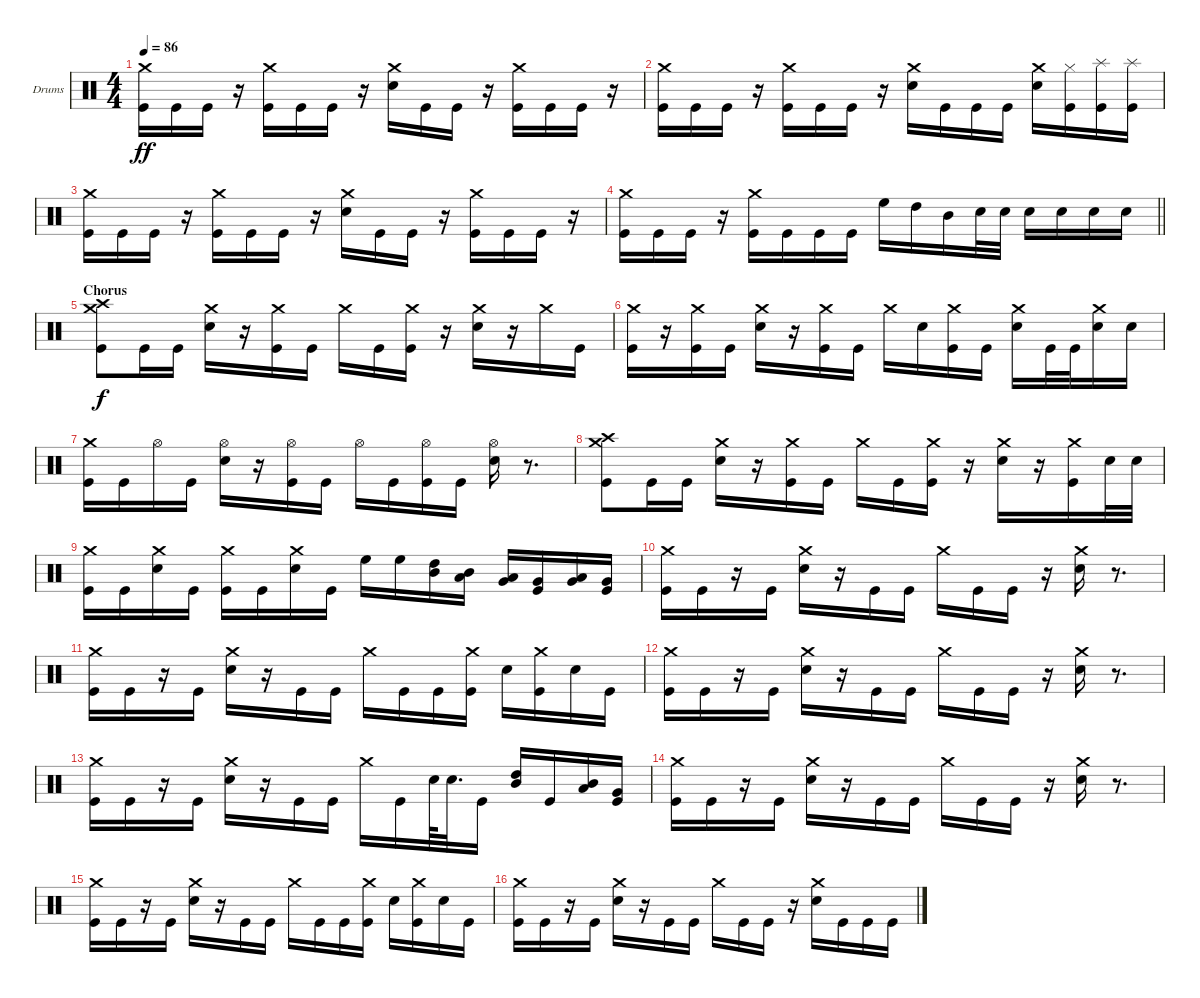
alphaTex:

\bracketExtendMode groupsimilarinstruments
\firstSystemTrackNameOrientation horizontal
\otherSystemsTrackNameOrientation horizontal
\track ("Drumkit" "Drums") {instrument percussion}
\staff {score}
\articulation defaults
\ts (4 4)
\tempo 86
\clef neutral
\ks c
("Kick (hit)" "Crash medium (hit)").16{dy ff} "Kick (hit)".16 "Kick (hit)".16 r.16 ("Kick (hit)" "Crash medium (hit)").16 "Kick (hit)".16 "Kick (hit)".16 r.16 ("Snare (hit) 2" "Crash medium (hit)").16 "Kick (hit)".16 "Kick (hit)".16 r.16 ("Crash medium (hit)" "Kick (hit)").16 "Kick (hit)".16 "Kick (hit)".16 r.16 |
("Kick (hit)" "Crash medium (hit)").16 "Kick (hit)".16 "Kick (hit)".16 r.16 ("Kick (hit)" "Crash medium (hit)").16 "Kick (hit)".16 "Kick (hit)".16 r.16 ("Snare (hit) 2" "Crash medium (hit)").16 "Kick (hit)".16 "Kick (hit)".16 "Kick (hit)".16 ("Snare (hit) 2" "Crash medium (hit)").16 ("Kick (hit)" "Hi-Hat (closed)").16 ("Kick (hit)" "Splash (hit)").16 ("Kick (hit)" "Splash (hit)").16 |
("Kick (hit)" "Crash medium (hit)").16 "Kick (hit)".16 "Kick (hit)".16 r.16 ("Kick (hit)" "Crash medium (hit)").16 "Kick (hit)".16 "Kick (hit)".16 r.16 ("Snare (hit) 2" "Crash medium (hit)").16 "Kick (hit)".16 "Kick (hit)".16 r.16 ("Crash medium (hit)" "Kick (hit)").16 "Kick (hit)".16 "Kick (hit)".16 r.16 |
\barLineRight lightlight
("Kick (hit)" "Crash medium (hit)").16 "Kick (hit)".16 "Kick (hit)".16 r.16 ("Kick (hit)" "Crash medium (hit)").16 "Kick (hit)".16 "Kick (hit)".16 "Kick (hit)".16 "High Floor Tom (hit)".16 "High Tom (hit)".16 "Mid Tom (hit)".16 "Snare (hit) 2".32 "Snare (hit) 2".32 "Snare (hit) 2".16 "Snare (hit) 2".16 "Snare (hit) 2".16 "Snare (hit) 2".16 |
\section ("" "Chorus")
("Crash medium (hit)" "Crash high (hit)" "Kick (hit)").8{dy f} "Kick (hit)".16 "Kick (hit)".16 ("Crash medium (hit)" "Snare (hit) 2").16 r.16 ("Crash medium (hit)" "Kick (hit)").16 "Kick (hit)".16 "Crash medium (hit)".16 "Kick (hit)".16 ("Crash medium (hit)" "Kick (hit)").16 r.16 ("Crash medium (hit)" "Snare (hit) 2").16 r.16 "Crash medium (hit)".16 "Kick (hit)".16 |
("Crash medium (hit)" "Kick (hit)").16 r.16 ("Crash medium (hit)" "Kick (hit)").16 "Kick (hit)".16 ("Crash medium (hit)" "Snare (hit) 2").16 r.16 ("Crash medium (hit)" "Kick (hit)").16 "Kick (hit)".16 "Crash medium (hit)".16 "Snare (hit) 2".16 ("Crash medium (hit)" "Kick (hit)").16 "Kick (hit)".16 ("Crash medium (hit)" "Snare (hit) 2").16 "Kick (hit)".32 "Kick (hit)".32 ("Crash medium (hit)" "Snare (hit) 2").16 "Snare (hit) 2".16 |
("Crash medium (hit)" "Kick (hit)").16 "Kick (hit)".16 "Hi-Hat (open)".16 "Kick (hit)".16 ("Hi-Hat (open)" "Snare (hit) 2").16 r.16 ("Hi-Hat (open)" "Kick (hit)").16 "Kick (hit)".16 "Hi-Hat (open)".16 "Kick (hit)".16 ("Hi-Hat (open)" "Kick (hit)").16 "Kick (hit)".16 ("Hi-Hat (open)" "Snare (hit) 2").16 r.8{d} |
("Crash medium (hit)" "Crash high (hit)" "Kick (hit)").8 "Kick (hit)".16 "Kick (hit)".16 ("Crash medium (hit)" "Snare (hit) 2").16 r.16 ("Crash medium (hit)" "Kick (hit)").16 "Kick (hit)".16 "Crash medium (hit)".16 "Kick (hit)".16 ("Crash medium (hit)" "Kick (hit)").16 r.16 ("Crash medium (hit)" "Snare (hit) 2").16 r.16 ("Crash medium (hit)" "Kick (hit)").16 "Snare (hit) 2".32 "Snare (hit) 2".32 |
("Crash medium (hit)" "Kick (hit)").16 "Kick (hit)".16 ("Crash medium (hit)" "Snare (hit) 2").16 "Kick (hit)".16 ("Crash medium (hit)" "Kick (hit)").16 "Kick (hit)".16 ("Crash medium (hit)" "Snare (hit) 2").16 "Kick (hit)".16 "High Floor Tom (hit)".16 "High Floor Tom (hit)".16 ("High Tom (hit)" "Mid Tom (hit)").16 ("Mid Tom (hit)" "Low Tom (hit)").16 ("Low Tom (hit)" "Very Low Tom (hit)").16 ("Very Low Tom (hit)" "Kick (hit)").16 ("Very Low Tom (hit)" "Low Tom (hit)").16 ("Kick (hit)" "Very Low Tom (hit)").16 |
("Crash medium (hit)" "Kick (hit)").16 "Kick (hit)".16 r.16 "Kick (hit)".16 ("Crash medium (hit)" "Snare (hit) 2").16 r.16 "Kick (hit)".16 "Kick (hit)".16 "Crash medium (hit)".16 "Kick (hit)".16 "Kick (hit)".16 r.16 ("Crash medium (hit)" "Snare (hit) 2").16 r.8{d} |
("Crash medium (hit)" "Kick (hit)").16 "Kick (hit)".16 r.16 "Kick (hit)".16 ("Crash medium (hit)" "Snare (hit) 2").16 r.16 "Kick (hit)".16 "Kick (hit)".16 "Crash medium (hit)".16 "Kick (hit)".16 "Kick (hit)".16 ("Kick (hit)" "Crash medium (hit)").16 "Snare (hit) 2".16 ("Kick (hit)" "Crash medium (hit)").16 "Snare (hit) 2".16 "Kick (hit)".16 |
("Kick (hit)" "Crash medium (hit)").16 "Kick (hit)".16 r.16 "Kick (hit)".16 ("Snare (hit) 2" "Crash medium (hit)").16 r.16 "Kick (hit)".16 "Kick (hit)".16 "Crash medium (hit)".16 "Kick (hit)".16 "Kick (hit)".16 r.16 ("Snare (hit) 2" "Crash medium (hit)").16 r.8{d} |
("Crash medium (hit)" "Kick (hit)").16 "Kick (hit)".16 r.16 "Kick (hit)".16 ("Crash medium (hit)" "Snare (hit) 2").16 r.16 "Kick (hit)".16 "Kick (hit)".16 "Crash medium (hit)".16 "Kick (hit)".16 "Snare (hit) 2".64 "Snare (hit) 2".32{d} "Kick (hit)".16 ("Mid Tom (hit)" "High Tom (hit)").16 "Kick (hit)".16 ("Low Tom (hit)" "Mid Tom (hit)").16 ("Kick (hit)" "Very Low Tom (hit)").16 |
("Crash medium (hit)" "Kick (hit)").16 "Kick (hit)".16 r.16 "Kick (hit)".16 ("Crash medium (hit)" "Snare (hit) 2").16 r.16 "Kick (hit)".16 "Kick (hit)".16 "Crash medium (hit)".16 "Kick (hit)".16 "Kick (hit)".16 r.16 ("Crash medium (hit)" "Snare (hit) 2").16 r.8{d} |
("Crash medium (hit)" "Kick (hit)").16 "Kick (hit)".16 r.16 "Kick (hit)".16 ("Crash medium (hit)" "Snare (hit) 2").16 r.16 "Kick (hit)".16 "Kick (hit)".16 "Crash medium (hit)".16 "Kick (hit)".16 "Kick (hit)".16 ("Kick (hit)" "Crash medium (hit)").16 "Snare (hit) 2".16 ("Kick (hit)" "Crash medium (hit)").16 "Snare (hit) 2".16 "Kick (hit)".16 |
("Kick (hit)" "Crash medium (hit)").16 "Kick (hit)".16 r.16 "Kick (hit)".16 ("Snare (hit) 2" "Crash medium (hit)").16 r.16 "Kick (hit)".16 "Kick (hit)".16 "Crash medium (hit)".16 "Kick (hit)".16 "Kick (hit)".16 r.16 ("Snare (hit) 2" "Crash medium (hit)").16 "Kick (hit)".16 "Kick (hit)".16 "Kick (hit)".16
